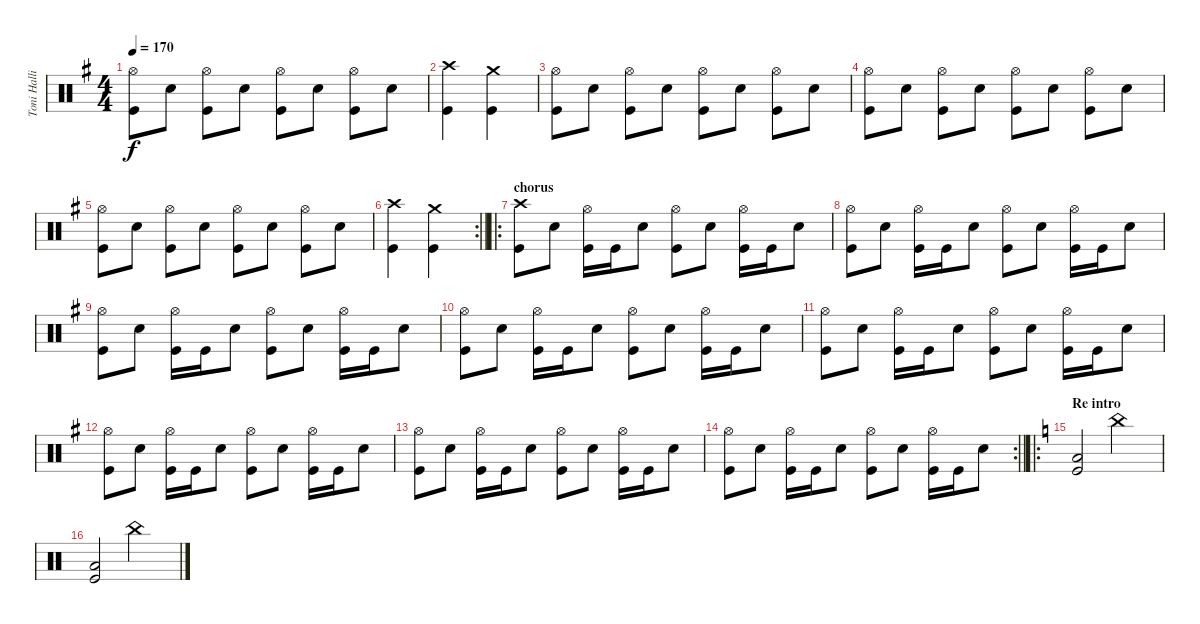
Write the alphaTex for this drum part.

\track ("Toni Hallio" "Toni Halli") {instrument percussion}
\staff {score}
\articulation defaults
\ts (4 4)
\tempo 170
\clef neutral
\ks g
("Hi-Hat (open)" "Kick (hit)").8{dy f} "Snare (hit) 2".8 ("Hi-Hat (open)" "Kick (hit)").8 "Snare (hit) 2".8 ("Hi-Hat (open)" "Kick (hit)").8 "Snare (hit) 2".8 ("Hi-Hat (open)" "Kick (hit)").8 "Snare (hit) 2".8 |
("Crash high (hit)" "Kick (hit)").4 ("Crash medium (hit)" "Kick (hit)").4 |
("Hi-Hat (open)" "Kick (hit)").8 "Snare (hit) 2".8 ("Hi-Hat (open)" "Kick (hit)").8 "Snare (hit) 2".8 ("Hi-Hat (open)" "Kick (hit)").8 "Snare (hit) 2".8 ("Hi-Hat (open)" "Kick (hit)").8 "Snare (hit) 2".8 |
("Hi-Hat (open)" "Kick (hit)").8 "Snare (hit) 2".8 ("Hi-Hat (open)" "Kick (hit)").8 "Snare (hit) 2".8 ("Hi-Hat (open)" "Kick (hit)").8 "Snare (hit) 2".8 ("Hi-Hat (open)" "Kick (hit)").8 "Snare (hit) 2".8 |
("Hi-Hat (open)" "Kick (hit)").8 "Snare (hit) 2".8 ("Hi-Hat (open)" "Kick (hit)").8 "Snare (hit) 2".8 ("Hi-Hat (open)" "Kick (hit)").8 "Snare (hit) 2".8 ("Hi-Hat (open)" "Kick (hit)").8 "Snare (hit) 2".8 |
\rc 2
\barLineRight lightlight
("Crash high (hit)" "Kick (hit)").4 ("Crash medium (hit)" "Kick (hit)").4 |
\ro
\section ("" "chorus")
("Crash high (hit)" "Kick (hit)").8 "Snare (hit) 2".8 ("Hi-Hat (open)" "Kick (hit)").16 "Kick (hit)".16 "Snare (hit) 2".8 ("Hi-Hat (open)" "Kick (hit)").8 "Snare (hit) 2".8 ("Hi-Hat (open)" "Kick (hit)").16 "Kick (hit)".16 "Snare (hit) 2".8 |
("Hi-Hat (open)" "Kick (hit)").8 "Snare (hit) 2".8 ("Hi-Hat (open)" "Kick (hit)").16 "Kick (hit)".16 "Snare (hit) 2".8 ("Hi-Hat (open)" "Kick (hit)").8 "Snare (hit) 2".8 ("Hi-Hat (open)" "Kick (hit)").16 "Kick (hit)".16 "Snare (hit) 2".8 |
("Hi-Hat (open)" "Kick (hit)").8 "Snare (hit) 2".8 ("Hi-Hat (open)" "Kick (hit)").16 "Kick (hit)".16 "Snare (hit) 2".8 ("Hi-Hat (open)" "Kick (hit)").8 "Snare (hit) 2".8 ("Hi-Hat (open)" "Kick (hit)").16 "Kick (hit)".16 "Snare (hit) 2".8 |
("Hi-Hat (open)" "Kick (hit)").8 "Snare (hit) 2".8 ("Hi-Hat (open)" "Kick (hit)").16 "Kick (hit)".16 "Snare (hit) 2".8 ("Hi-Hat (open)" "Kick (hit)").8 "Snare (hit) 2".8 ("Hi-Hat (open)" "Kick (hit)").16 "Kick (hit)".16 "Snare (hit) 2".8 |
("Hi-Hat (open)" "Kick (hit)").8 "Snare (hit) 2".8 ("Hi-Hat (open)" "Kick (hit)").16 "Kick (hit)".16 "Snare (hit) 2".8 ("Hi-Hat (open)" "Kick (hit)").8 "Snare (hit) 2".8 ("Hi-Hat (open)" "Kick (hit)").16 "Kick (hit)".16 "Snare (hit) 2".8 |
("Hi-Hat (open)" "Kick (hit)").8 "Snare (hit) 2".8 ("Hi-Hat (open)" "Kick (hit)").16 "Kick (hit)".16 "Snare (hit) 2".8 ("Hi-Hat (open)" "Kick (hit)").8 "Snare (hit) 2".8 ("Hi-Hat (open)" "Kick (hit)").16 "Kick (hit)".16 "Snare (hit) 2".8 |
("Hi-Hat (open)" "Kick (hit)").8 "Snare (hit) 2".8 ("Hi-Hat (open)" "Kick (hit)").16 "Kick (hit)".16 "Snare (hit) 2".8 ("Hi-Hat (open)" "Kick (hit)").8 "Snare (hit) 2".8 ("Hi-Hat (open)" "Kick (hit)").16 "Kick (hit)".16 "Snare (hit) 2".8 |
\rc 2
\barLineRight lightlight
("Hi-Hat (open)" "Kick (hit)").8 "Snare (hit) 2".8 ("Hi-Hat (open)" "Kick (hit)").16 "Kick (hit)".16 "Snare (hit) 2".8 ("Hi-Hat (open)" "Kick (hit)").8 "Snare (hit) 2".8 ("Hi-Hat (open)" "Kick (hit)").16 "Kick (hit)".16 "Snare (hit) 2".8 |
\ro
\section ("" "Re intro")
\ks c
("Low Floor Tom (hit)" "Kick (hit)").2 "China (hit)".2 |
("Low Floor Tom (hit)" "Kick (hit)").2 "China (hit)".2
